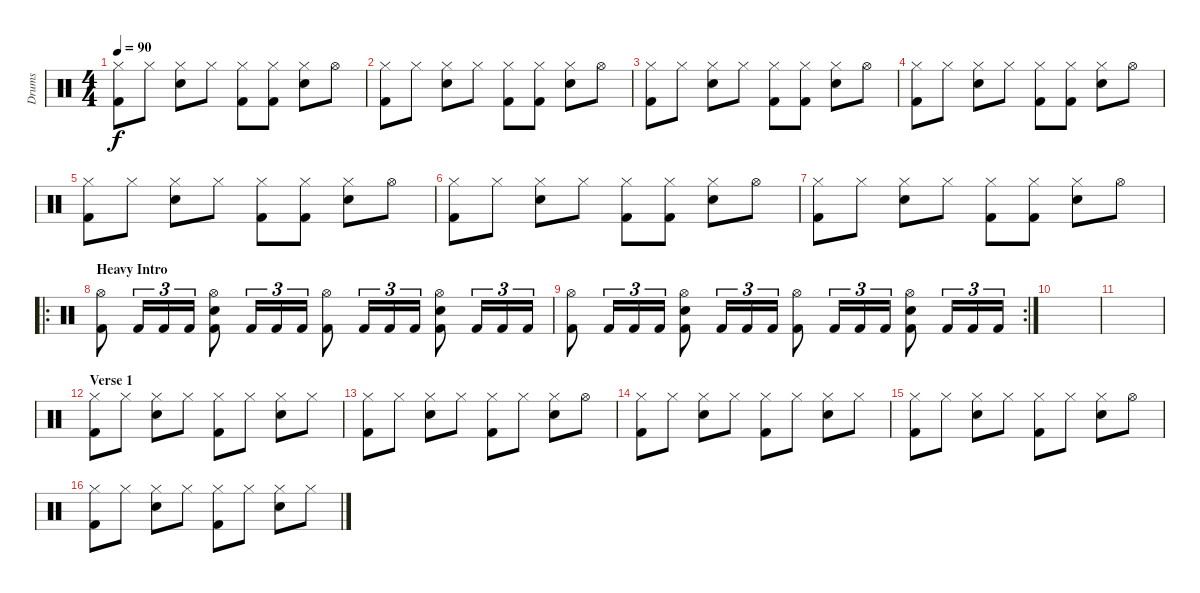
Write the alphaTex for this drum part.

\track ("Drums" "Drums") {instrument percussion}
\staff {score}
\articulation defaults
\ts (4 4)
\tempo 90
\clef neutral
\ks c
("Hi-Hat (closed)" "Kick (hit) 2").8{dy f} "Hi-Hat (closed)".8 ("Hi-Hat (closed)" "Electric Snare (hit)").8 "Hi-Hat (closed)".8 ("Hi-Hat (closed)" "Kick (hit) 2").8 ("Hi-Hat (closed)" "Kick (hit) 2").8 ("Hi-Hat (closed)" "Electric Snare (hit)").8 "Hi-Hat (open)".8 |
("Hi-Hat (closed)" "Kick (hit) 2").8 "Hi-Hat (closed)".8 ("Hi-Hat (closed)" "Electric Snare (hit)").8 "Hi-Hat (closed)".8 ("Hi-Hat (closed)" "Kick (hit) 2").8 ("Hi-Hat (closed)" "Kick (hit) 2").8 ("Hi-Hat (closed)" "Electric Snare (hit)").8 "Hi-Hat (open)".8 |
("Hi-Hat (closed)" "Kick (hit) 2").8 "Hi-Hat (closed)".8 ("Hi-Hat (closed)" "Electric Snare (hit)").8 "Hi-Hat (closed)".8 ("Hi-Hat (closed)" "Kick (hit) 2").8 ("Hi-Hat (closed)" "Kick (hit) 2").8 ("Hi-Hat (closed)" "Electric Snare (hit)").8 "Hi-Hat (open)".8 |
("Hi-Hat (closed)" "Kick (hit) 2").8 "Hi-Hat (closed)".8 ("Hi-Hat (closed)" "Electric Snare (hit)").8 "Hi-Hat (closed)".8 ("Hi-Hat (closed)" "Kick (hit) 2").8 ("Hi-Hat (closed)" "Kick (hit) 2").8 ("Hi-Hat (closed)" "Electric Snare (hit)").8 "Hi-Hat (open)".8 |
("Hi-Hat (closed)" "Kick (hit) 2").8 "Hi-Hat (closed)".8 ("Hi-Hat (closed)" "Electric Snare (hit)").8 "Hi-Hat (closed)".8 ("Hi-Hat (closed)" "Kick (hit) 2").8 ("Hi-Hat (closed)" "Kick (hit) 2").8 ("Hi-Hat (closed)" "Electric Snare (hit)").8 "Hi-Hat (open)".8 |
("Hi-Hat (closed)" "Kick (hit) 2").8 "Hi-Hat (closed)".8 ("Hi-Hat (closed)" "Electric Snare (hit)").8 "Hi-Hat (closed)".8 ("Hi-Hat (closed)" "Kick (hit) 2").8 ("Hi-Hat (closed)" "Kick (hit) 2").8 ("Hi-Hat (closed)" "Electric Snare (hit)").8 "Hi-Hat (open)".8 |
("Hi-Hat (closed)" "Kick (hit) 2").8 "Hi-Hat (closed)".8 ("Hi-Hat (closed)" "Electric Snare (hit)").8 "Hi-Hat (closed)".8 ("Hi-Hat (closed)" "Kick (hit) 2").8 ("Hi-Hat (closed)" "Kick (hit) 2").8 ("Hi-Hat (closed)" "Electric Snare (hit)").8 "Hi-Hat (open)".8 |
\ro
\section ("" "Heavy Intro")
("Hi-Hat (open)" "Kick (hit) 2").8 "Kick (hit) 2".16{tu (3 2)} "Kick (hit) 2".16{tu (3 2)} "Kick (hit) 2".16{tu (3 2)} ("Hi-Hat (open)" "Kick (hit) 2" "Electric Snare (hit)").8 "Kick (hit) 2".16{tu (3 2)} "Kick (hit) 2".16{tu (3 2)} "Kick (hit) 2".16{tu (3 2)} ("Hi-Hat (open)" "Kick (hit) 2").8 "Kick (hit) 2".16{tu (3 2)} "Kick (hit) 2".16{tu (3 2)} "Kick (hit) 2".16{tu (3 2)} ("Hi-Hat (open)" "Kick (hit) 2" "Electric Snare (hit)").8 "Kick (hit) 2".16{tu (3 2)} "Kick (hit) 2".16{tu (3 2)} "Kick (hit) 2".16{tu (3 2)} |
\rc 2
("Hi-Hat (open)" "Kick (hit) 2").8 "Kick (hit) 2".16{tu (3 2)} "Kick (hit) 2".16{tu (3 2)} "Kick (hit) 2".16{tu (3 2)} ("Hi-Hat (open)" "Kick (hit) 2" "Electric Snare (hit)").8 "Kick (hit) 2".16{tu (3 2)} "Kick (hit) 2".16{tu (3 2)} "Kick (hit) 2".16{tu (3 2)} ("Hi-Hat (open)" "Kick (hit) 2").8 "Kick (hit) 2".16{tu (3 2)} "Kick (hit) 2".16{tu (3 2)} "Kick (hit) 2".16{tu (3 2)} ("Hi-Hat (open)" "Kick (hit) 2" "Electric Snare (hit)").8 "Kick (hit) 2".16{tu (3 2)} "Kick (hit) 2".16{tu (3 2)} "Kick (hit) 2".16{tu (3 2)} |
|
|
\section ("" "Verse 1")
("Hi-Hat (closed)" "Kick (hit) 2").8 "Hi-Hat (closed)".8 ("Hi-Hat (closed)" "Electric Snare (hit)").8 "Hi-Hat (closed)".8 ("Hi-Hat (closed)" "Kick (hit) 2").8 "Hi-Hat (closed)".8 ("Hi-Hat (closed)" "Electric Snare (hit)").8 "Hi-Hat (closed)".8 |
("Hi-Hat (closed)" "Kick (hit) 2").8 "Hi-Hat (closed)".8 ("Hi-Hat (closed)" "Electric Snare (hit)").8 "Hi-Hat (closed)".8 ("Hi-Hat (closed)" "Kick (hit) 2").8 "Hi-Hat (closed)".8 ("Hi-Hat (closed)" "Electric Snare (hit)").8 "Hi-Hat (open)".8 |
("Hi-Hat (closed)" "Kick (hit) 2").8 "Hi-Hat (closed)".8 ("Hi-Hat (closed)" "Electric Snare (hit)").8 "Hi-Hat (closed)".8 ("Hi-Hat (closed)" "Kick (hit) 2").8 "Hi-Hat (closed)".8 ("Hi-Hat (closed)" "Electric Snare (hit)").8 "Hi-Hat (closed)".8 |
("Hi-Hat (closed)" "Kick (hit) 2").8 "Hi-Hat (closed)".8 ("Hi-Hat (closed)" "Electric Snare (hit)").8 "Hi-Hat (closed)".8 ("Hi-Hat (closed)" "Kick (hit) 2").8 "Hi-Hat (closed)".8 ("Hi-Hat (closed)" "Electric Snare (hit)").8 "Hi-Hat (open)".8 |
("Hi-Hat (closed)" "Kick (hit) 2").8 "Hi-Hat (closed)".8 ("Hi-Hat (closed)" "Electric Snare (hit)").8 "Hi-Hat (closed)".8 ("Hi-Hat (closed)" "Kick (hit) 2").8 "Hi-Hat (closed)".8 ("Hi-Hat (closed)" "Electric Snare (hit)").8 "Hi-Hat (closed)".8
